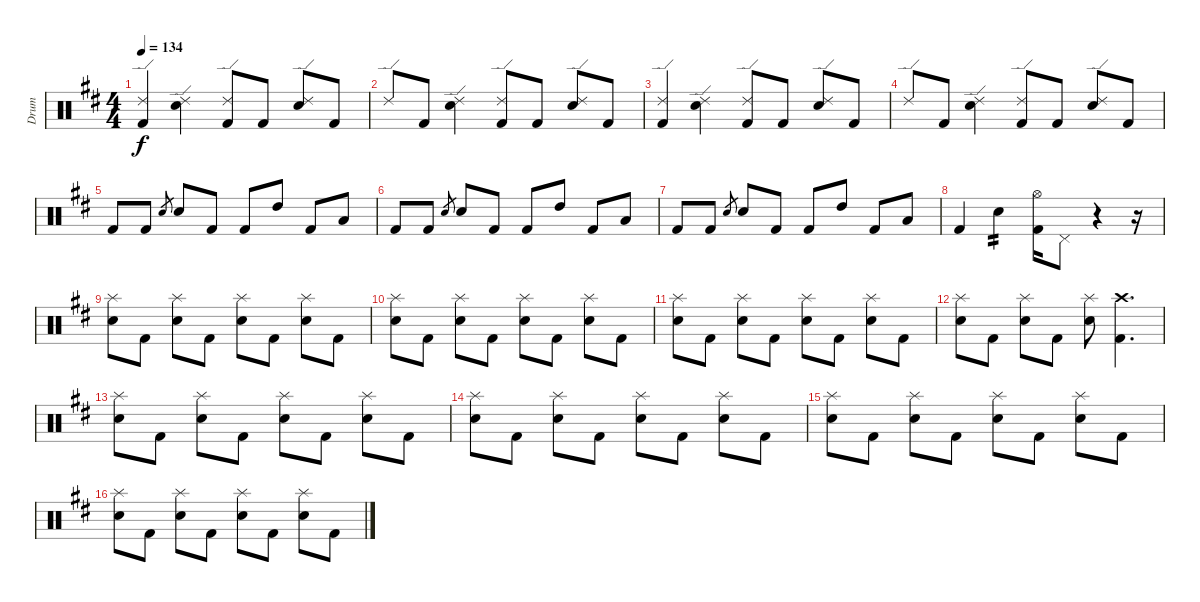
\track ("Drum" "Drum") {instrument percussion}
\staff {score}
\articulation defaults
\ts (4 4)
\tempo 134
\clef neutral
\ks d
("Kick (hit) 2" "Ride (edge) 2").4{dy f} ("Electric Snare (hit)" "Ride (edge) 2").4 ("Ride (edge) 2" "Kick (hit) 2").8 "Kick (hit) 2".8 ("Electric Snare (hit)" "Ride (edge) 2").8 "Kick (hit) 2".8 |
"Ride (edge) 2".8 "Kick (hit) 2".8 ("Electric Snare (hit)" "Ride (edge) 2").4 ("Kick (hit) 2" "Ride (edge) 2").8 "Kick (hit) 2".8 ("Ride (edge) 2" "Electric Snare (hit)").8 "Kick (hit) 2".8 |
("Kick (hit) 2" "Ride (edge) 2").4 ("Electric Snare (hit)" "Ride (edge) 2").4 ("Ride (edge) 2" "Kick (hit) 2").8 "Kick (hit) 2".8 ("Electric Snare (hit)" "Ride (edge) 2").8 "Kick (hit) 2".8 |
"Ride (edge) 2".8 "Kick (hit) 2".8 ("Electric Snare (hit)" "Ride (edge) 2").4 ("Kick (hit) 2" "Ride (edge) 2").8 "Kick (hit) 2".8 ("Ride (edge) 2" "Electric Snare (hit)").8 "Kick (hit) 2".8 |
"Kick (hit) 2".8 "Kick (hit) 2".8 "Electric Snare (hit)".8{gr} "Electric Snare (hit)".8 "Kick (hit) 2".8 "Kick (hit) 2".8 "High Tom (hit)".8 "Kick (hit) 2".8 "Low Tom (hit)".8 |
"Kick (hit) 2".8 "Kick (hit) 2".8 "Electric Snare (hit)".8{gr} "Electric Snare (hit)".8 "Kick (hit) 2".8 "Kick (hit) 2".8 "High Tom (hit)".8 "Kick (hit) 2".8 "Low Tom (hit)".8 |
"Kick (hit) 2".8 "Kick (hit) 2".8 "Electric Snare (hit)".8{gr} "Electric Snare (hit)".8 "Kick (hit) 2".8 "Kick (hit) 2".8 "High Tom (hit)".8 "Kick (hit) 2".8 "Low Tom (hit)".8 |
"Kick (hit) 2".4 "Electric Snare (hit)".4{tp 2} ("Kick (hit) 2" "Hi-Hat (open)").16 "Pedal Hi-Hat (hit)".8 r.4 r.16 |
("Electric Snare (hit)" "Splash (hit)").8 "Kick (hit) 2".8 ("Electric Snare (hit)" "Splash (hit)").8 "Kick (hit) 2".8 ("Electric Snare (hit)" "Splash (hit)").8 "Kick (hit) 2".8 ("Electric Snare (hit)" "Splash (hit)").8 "Kick (hit) 2".8 |
("Electric Snare (hit)" "Splash (hit)").8 "Kick (hit) 2".8 ("Electric Snare (hit)" "Splash (hit)").8 "Kick (hit) 2".8 ("Electric Snare (hit)" "Splash (hit)").8 "Kick (hit) 2".8 ("Electric Snare (hit)" "Splash (hit)").8 "Kick (hit) 2".8 |
("Electric Snare (hit)" "Splash (hit)").8 "Kick (hit) 2".8 ("Electric Snare (hit)" "Splash (hit)").8 "Kick (hit) 2".8 ("Electric Snare (hit)" "Splash (hit)").8 "Kick (hit) 2".8 ("Electric Snare (hit)" "Splash (hit)").8 "Kick (hit) 2".8 |
("Electric Snare (hit)" "Splash (hit)").8 "Kick (hit) 2".8 ("Electric Snare (hit)" "Splash (hit)").8 "Kick (hit) 2".8 ("Electric Snare (hit)" "Splash (hit)").8 ("Kick (hit) 2" "Crash high (hit)").4{d} |
("Electric Snare (hit)" "Splash (hit)").8 "Kick (hit) 2".8 ("Electric Snare (hit)" "Splash (hit)").8 "Kick (hit) 2".8 ("Electric Snare (hit)" "Splash (hit)").8 "Kick (hit) 2".8 ("Electric Snare (hit)" "Splash (hit)").8 "Kick (hit) 2".8 |
("Electric Snare (hit)" "Splash (hit)").8 "Kick (hit) 2".8 ("Electric Snare (hit)" "Splash (hit)").8 "Kick (hit) 2".8 ("Electric Snare (hit)" "Splash (hit)").8 "Kick (hit) 2".8 ("Electric Snare (hit)" "Splash (hit)").8 "Kick (hit) 2".8 |
("Electric Snare (hit)" "Splash (hit)").8 "Kick (hit) 2".8 ("Electric Snare (hit)" "Splash (hit)").8 "Kick (hit) 2".8 ("Electric Snare (hit)" "Splash (hit)").8 "Kick (hit) 2".8 ("Electric Snare (hit)" "Splash (hit)").8 "Kick (hit) 2".8 |
("Electric Snare (hit)" "Splash (hit)").8 "Kick (hit) 2".8 ("Electric Snare (hit)" "Splash (hit)").8 "Kick (hit) 2".8 ("Electric Snare (hit)" "Splash (hit)").8 "Kick (hit) 2".8 ("Electric Snare (hit)" "Splash (hit)").8 "Kick (hit) 2".8
